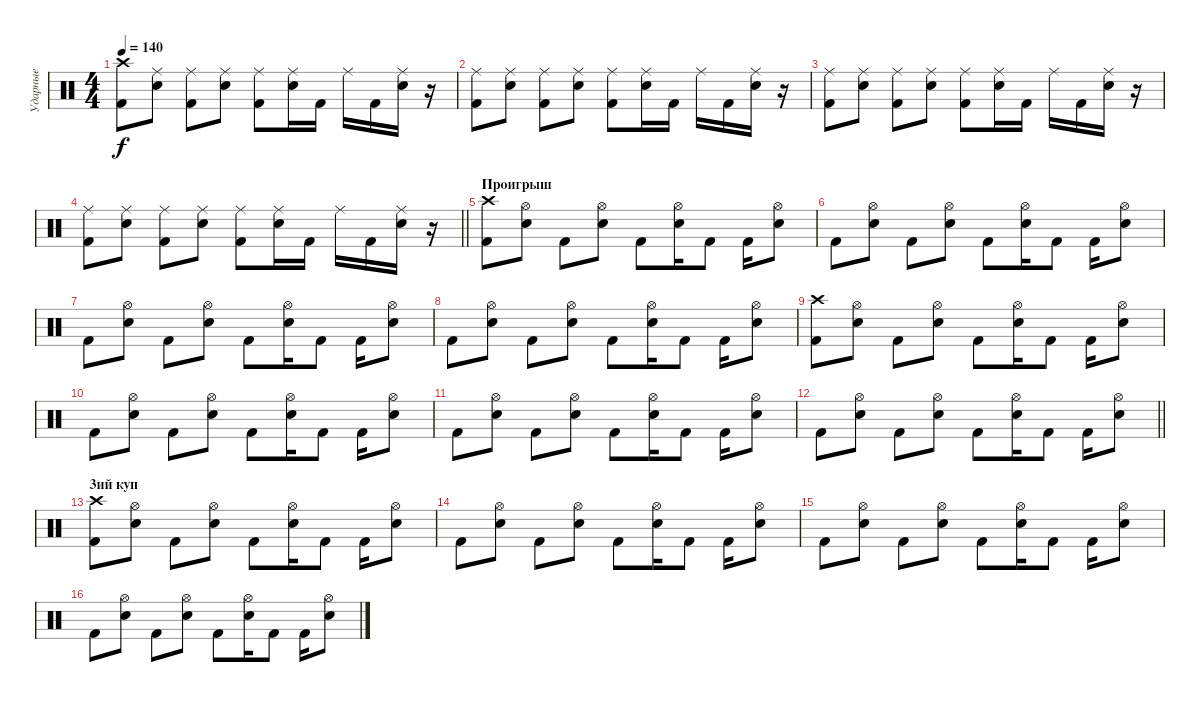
\track ("Ударные" "Ударные") {instrument percussion}
\staff {score}
\articulation defaults
\ts (4 4)
\tempo 140
\clef neutral
\ks c
("Crash high (hit)" "Kick (hit) 2").8{dy f} ("Ride (middle)" "Electric Snare (hit)").8 ("Ride (middle)" "Kick (hit) 2").8 ("Ride (middle)" "Electric Snare (hit)").8 ("Ride (middle)" "Kick (hit) 2").8 ("Ride (middle)" "Electric Snare (hit)").16 "Kick (hit) 2".16 "Ride (middle)".16 "Kick (hit) 2".16 ("Ride (middle)" "Electric Snare (hit)").16 r.16 |
("Ride (middle)" "Kick (hit) 2").8 ("Ride (middle)" "Electric Snare (hit)").8 ("Ride (middle)" "Kick (hit) 2").8 ("Ride (middle)" "Electric Snare (hit)").8 ("Ride (middle)" "Kick (hit) 2").8 ("Ride (middle)" "Electric Snare (hit)").16 "Kick (hit) 2".16 "Ride (middle)".16 "Kick (hit) 2".16 ("Ride (middle)" "Electric Snare (hit)").16 r.16 |
("Ride (middle)" "Kick (hit) 2").8 ("Ride (middle)" "Electric Snare (hit)").8 ("Ride (middle)" "Kick (hit) 2").8 ("Ride (middle)" "Electric Snare (hit)").8 ("Ride (middle)" "Kick (hit) 2").8 ("Ride (middle)" "Electric Snare (hit)").16 "Kick (hit) 2".16 "Ride (middle)".16 "Kick (hit) 2".16 ("Ride (middle)" "Electric Snare (hit)").16 r.16 |
\barLineRight lightlight
("Ride (middle)" "Kick (hit) 2").8 ("Ride (middle)" "Electric Snare (hit)").8 ("Ride (middle)" "Kick (hit) 2").8 ("Ride (middle)" "Electric Snare (hit)").8 ("Ride (middle)" "Kick (hit) 2").8 ("Ride (middle)" "Electric Snare (hit)").16 "Kick (hit) 2".16 "Ride (middle)".16 "Kick (hit) 2".16 ("Ride (middle)" "Electric Snare (hit)").16 r.16 |
\section ("" "Проигрыш")
("Crash high (hit)" "Kick (hit) 2").8 ("Hi-Hat (open)" "Electric Snare (hit)").8 "Kick (hit) 2".8 ("Hi-Hat (open)" "Electric Snare (hit)").8 "Kick (hit) 2".8 ("Hi-Hat (open)" "Electric Snare (hit)").16 "Kick (hit) 2".8 "Kick (hit) 2".16 ("Hi-Hat (open)" "Electric Snare (hit)").8 |
"Kick (hit) 2".8 ("Hi-Hat (open)" "Electric Snare (hit)").8 "Kick (hit) 2".8 ("Hi-Hat (open)" "Electric Snare (hit)").8 "Kick (hit) 2".8 ("Hi-Hat (open)" "Electric Snare (hit)").16 "Kick (hit) 2".8 "Kick (hit) 2".16 ("Hi-Hat (open)" "Electric Snare (hit)").8 |
"Kick (hit) 2".8 ("Hi-Hat (open)" "Electric Snare (hit)").8 "Kick (hit) 2".8 ("Hi-Hat (open)" "Electric Snare (hit)").8 "Kick (hit) 2".8 ("Hi-Hat (open)" "Electric Snare (hit)").16 "Kick (hit) 2".8 "Kick (hit) 2".16 ("Hi-Hat (open)" "Electric Snare (hit)").8 |
"Kick (hit) 2".8 ("Hi-Hat (open)" "Electric Snare (hit)").8 "Kick (hit) 2".8 ("Hi-Hat (open)" "Electric Snare (hit)").8 "Kick (hit) 2".8 ("Hi-Hat (open)" "Electric Snare (hit)").16 "Kick (hit) 2".8 "Kick (hit) 2".16 ("Hi-Hat (open)" "Electric Snare (hit)").8 |
("Crash high (hit)" "Kick (hit) 2").8 ("Hi-Hat (open)" "Electric Snare (hit)").8 "Kick (hit) 2".8 ("Hi-Hat (open)" "Electric Snare (hit)").8 "Kick (hit) 2".8 ("Hi-Hat (open)" "Electric Snare (hit)").16 "Kick (hit) 2".8 "Kick (hit) 2".16 ("Hi-Hat (open)" "Electric Snare (hit)").8 |
"Kick (hit) 2".8 ("Hi-Hat (open)" "Electric Snare (hit)").8 "Kick (hit) 2".8 ("Hi-Hat (open)" "Electric Snare (hit)").8 "Kick (hit) 2".8 ("Hi-Hat (open)" "Electric Snare (hit)").16 "Kick (hit) 2".8 "Kick (hit) 2".16 ("Hi-Hat (open)" "Electric Snare (hit)").8 |
"Kick (hit) 2".8 ("Hi-Hat (open)" "Electric Snare (hit)").8 "Kick (hit) 2".8 ("Hi-Hat (open)" "Electric Snare (hit)").8 "Kick (hit) 2".8 ("Hi-Hat (open)" "Electric Snare (hit)").16 "Kick (hit) 2".8 "Kick (hit) 2".16 ("Hi-Hat (open)" "Electric Snare (hit)").8 |
\barLineRight lightlight "Kick (hit) 2".8
("Hi-Hat (open)" "Electric Snare (hit)").8 "Kick (hit) 2".8 ("Hi-Hat (open)" "Electric Snare (hit)").8 "Kick (hit) 2".8 ("Hi-Hat (open)" "Electric Snare (hit)").16 "Kick (hit) 2".8 "Kick (hit) 2".16 ("Hi-Hat (open)" "Electric Snare (hit)").8 |
\section ("" "3ий куп")
("Crash high (hit)" "Kick (hit) 2").8 ("Hi-Hat (open)" "Electric Snare (hit)").8 "Kick (hit) 2".8 ("Hi-Hat (open)" "Electric Snare (hit)").8 "Kick (hit) 2".8 ("Hi-Hat (open)" "Electric Snare (hit)").16 "Kick (hit) 2".8 "Kick (hit) 2".16 ("Hi-Hat (open)" "Electric Snare (hit)").8 |
"Kick (hit) 2".8 ("Hi-Hat (open)" "Electric Snare (hit)").8 "Kick (hit) 2".8 ("Hi-Hat (open)" "Electric Snare (hit)").8 "Kick (hit) 2".8 ("Hi-Hat (open)" "Electric Snare (hit)").16 "Kick (hit) 2".8 "Kick (hit) 2".16 ("Hi-Hat (open)" "Electric Snare (hit)").8 |
"Kick (hit) 2".8 ("Hi-Hat (open)" "Electric Snare (hit)").8 "Kick (hit) 2".8 ("Hi-Hat (open)" "Electric Snare (hit)").8 "Kick (hit) 2".8 ("Hi-Hat (open)" "Electric Snare (hit)").16 "Kick (hit) 2".8 "Kick (hit) 2".16 ("Hi-Hat (open)" "Electric Snare (hit)").8 |
"Kick (hit) 2".8 ("Hi-Hat (open)" "Electric Snare (hit)").8 "Kick (hit) 2".8 ("Hi-Hat (open)" "Electric Snare (hit)").8 "Kick (hit) 2".8 ("Hi-Hat (open)" "Electric Snare (hit)").16 "Kick (hit) 2".8 "Kick (hit) 2".16 ("Hi-Hat (open)" "Electric Snare (hit)").8
